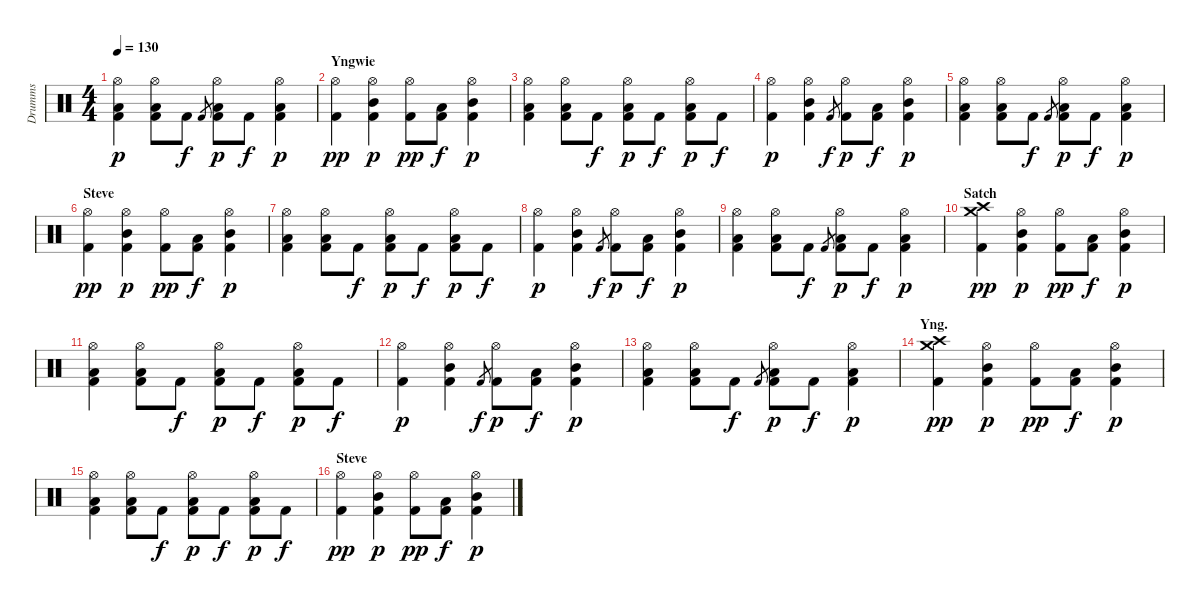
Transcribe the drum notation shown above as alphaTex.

\track ("Drumms" "Drumms") {instrument percussion}
\staff {score}
\articulation defaults
\ts (4 4)
\tempo 130
\clef neutral
\ks c
("Hi-Hat (open)" "Kick (hit) 2" "Low Tom (hit)").4{dy p} ("Hi-Hat (open)" "Kick (hit) 2" "Low Tom (hit)").8 "Kick (hit) 2".8{dy f} "Kick (hit) 2".8{gr} ("Hi-Hat (open)" "Kick (hit) 2" "Low Tom (hit)").8{dy p} "Kick (hit) 2".8{dy f} ("Hi-Hat (open)" "Kick (hit) 2" "Low Tom (hit)").4{dy p} |
\section ("" "Yngwie")
("Hi-Hat (open)" "Kick (hit) 2").4{dy pp} ("Hi-Hat (open)" "Kick (hit) 2" "Mid Tom (hit)").4{dy p} ("Hi-Hat (open)" "Kick (hit) 2").8{dy pp} ("Kick (hit) 2" "Low Tom (hit)").8{dy f} ("Hi-Hat (open)" "Kick (hit) 2" "Mid Tom (hit)").4{dy p} |
("Hi-Hat (open)" "Kick (hit) 2" "Low Tom (hit)").4 ("Hi-Hat (open)" "Kick (hit) 2" "Low Tom (hit)").8 "Kick (hit) 2".8{dy f} ("Hi-Hat (open)" "Kick (hit) 2" "Low Tom (hit)").8{dy p} "Kick (hit) 2".8{dy f} ("Hi-Hat (open)" "Kick (hit) 2" "Low Tom (hit)").8{dy p} "Kick (hit) 2".8{dy f} |
("Hi-Hat (open)" "Kick (hit) 2").4{dy p} ("Hi-Hat (open)" "Kick (hit) 2" "Mid Tom (hit)").4 "Kick (hit) 2".8{gr dy f} ("Hi-Hat (open)" "Kick (hit) 2").8{dy p} ("Kick (hit) 2" "Low Tom (hit)").8{dy f} ("Hi-Hat (open)" "Kick (hit) 2" "Mid Tom (hit)").4{dy p} |
("Hi-Hat (open)" "Kick (hit) 2" "Low Tom (hit)").4 ("Hi-Hat (open)" "Kick (hit) 2" "Low Tom (hit)").8 "Kick (hit) 2".8{dy f} "Kick (hit) 2".8{gr} ("Hi-Hat (open)" "Kick (hit) 2" "Low Tom (hit)").8{dy p} "Kick (hit) 2".8{dy f} ("Hi-Hat (open)" "Kick (hit) 2" "Low Tom (hit)").4{dy p} |
\section ("" "Steve")
("Hi-Hat (open)" "Kick (hit) 2").4{dy pp} ("Hi-Hat (open)" "Kick (hit) 2" "Mid Tom (hit)").4{dy p} ("Hi-Hat (open)" "Kick (hit) 2").8{dy pp} ("Kick (hit) 2" "Low Tom (hit)").8{dy f} ("Hi-Hat (open)" "Kick (hit) 2" "Mid Tom (hit)").4{dy p} |
("Hi-Hat (open)" "Kick (hit) 2" "Low Tom (hit)").4 ("Hi-Hat (open)" "Kick (hit) 2" "Low Tom (hit)").8 "Kick (hit) 2".8{dy f} ("Hi-Hat (open)" "Kick (hit) 2" "Low Tom (hit)").8{dy p} "Kick (hit) 2".8{dy f} ("Hi-Hat (open)" "Kick (hit) 2" "Low Tom (hit)").8{dy p} "Kick (hit) 2".8{dy f} |
("Hi-Hat (open)" "Kick (hit) 2").4{dy p} ("Hi-Hat (open)" "Kick (hit) 2" "Mid Tom (hit)").4 "Kick (hit) 2".8{gr dy f} ("Hi-Hat (open)" "Kick (hit) 2").8{dy p} ("Kick (hit) 2" "Low Tom (hit)").8{dy f} ("Hi-Hat (open)" "Kick (hit) 2" "Mid Tom (hit)").4{dy p} |
("Hi-Hat (open)" "Kick (hit) 2" "Low Tom (hit)").4 ("Hi-Hat (open)" "Kick (hit) 2" "Low Tom (hit)").8 "Kick (hit) 2".8{dy f} "Kick (hit) 2".8{gr} ("Hi-Hat (open)" "Kick (hit) 2" "Low Tom (hit)").8{dy p} "Kick (hit) 2".8{dy f} ("Hi-Hat (open)" "Kick (hit) 2" "Low Tom (hit)").4{dy p} |
\section ("" "Satch")
("Crash medium (hit)" "Crash high (hit)" "Kick (hit) 2").4{dy pp} ("Hi-Hat (open)" "Kick (hit) 2" "Mid Tom (hit)").4{dy p} ("Hi-Hat (open)" "Kick (hit) 2").8{dy pp} ("Kick (hit) 2" "Low Tom (hit)").8{dy f} ("Hi-Hat (open)" "Kick (hit) 2" "Mid Tom (hit)").4{dy p} |
("Hi-Hat (open)" "Kick (hit) 2" "Low Tom (hit)").4 ("Hi-Hat (open)" "Kick (hit) 2" "Low Tom (hit)").8 "Kick (hit) 2".8{dy f} ("Hi-Hat (open)" "Kick (hit) 2" "Low Tom (hit)").8{dy p} "Kick (hit) 2".8{dy f} ("Hi-Hat (open)" "Kick (hit) 2" "Low Tom (hit)").8{dy p} "Kick (hit) 2".8{dy f} |
("Hi-Hat (open)" "Kick (hit) 2").4{dy p} ("Hi-Hat (open)" "Kick (hit) 2" "Mid Tom (hit)").4 "Kick (hit) 2".8{gr dy f} ("Hi-Hat (open)" "Kick (hit) 2").8{dy p} ("Kick (hit) 2" "Low Tom (hit)").8{dy f} ("Hi-Hat (open)" "Kick (hit) 2" "Mid Tom (hit)").4{dy p} |
("Hi-Hat (open)" "Kick (hit) 2" "Low Tom (hit)").4 ("Hi-Hat (open)" "Kick (hit) 2" "Low Tom (hit)").8 "Kick (hit) 2".8{dy f} "Kick (hit) 2".8{gr} ("Hi-Hat (open)" "Kick (hit) 2" "Low Tom (hit)").8{dy p} "Kick (hit) 2".8{dy f} ("Hi-Hat (open)" "Kick (hit) 2" "Low Tom (hit)").4{dy p} |
\section ("" "Yng.")
("Crash medium (hit)" "Crash high (hit)" "Kick (hit) 2").4{dy pp} ("Hi-Hat (open)" "Kick (hit) 2" "Mid Tom (hit)").4{dy p} ("Hi-Hat (open)" "Kick (hit) 2").8{dy pp} ("Kick (hit) 2" "Low Tom (hit)").8{dy f} ("Hi-Hat (open)" "Kick (hit) 2" "Mid Tom (hit)").4{dy p} |
("Hi-Hat (open)" "Kick (hit) 2" "Low Tom (hit)").4 ("Hi-Hat (open)" "Kick (hit) 2" "Low Tom (hit)").8 "Kick (hit) 2".8{dy f} ("Hi-Hat (open)" "Kick (hit) 2" "Low Tom (hit)").8{dy p} "Kick (hit) 2".8{dy f} ("Hi-Hat (open)" "Kick (hit) 2" "Low Tom (hit)").8{dy p} "Kick (hit) 2".8{dy f} |
\section ("" "Steve")
("Hi-Hat (open)" "Kick (hit) 2").4{dy pp} ("Hi-Hat (open)" "Kick (hit) 2" "Mid Tom (hit)").4{dy p} ("Hi-Hat (open)" "Kick (hit) 2").8{dy pp} ("Kick (hit) 2" "Low Tom (hit)").8{dy f} ("Hi-Hat (open)" "Kick (hit) 2" "Mid Tom (hit)").4{dy p}
